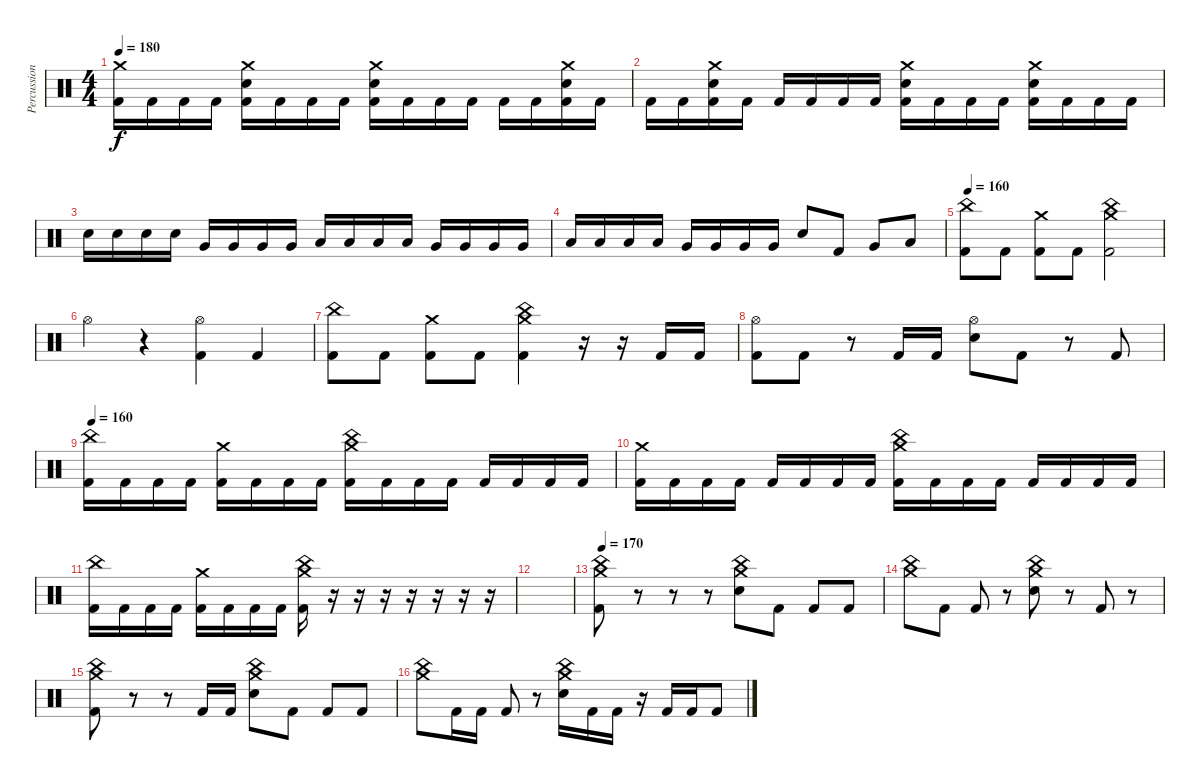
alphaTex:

\track ("Percussions" "Percussion") {instrument percussion}
\staff {score}
\articulation defaults
\ts (4 4)
\tempo 180
\clef neutral
\ks c
("Crash medium (hit)" "Kick (hit) 2").16{dy f} "Kick (hit) 2".16 "Kick (hit) 2".16 "Kick (hit) 2".16 ("Crash medium (hit)" "Electric Snare (hit)" "Kick (hit) 2").16 "Kick (hit) 2".16 "Kick (hit) 2".16 "Kick (hit) 2".16 ("Crash medium (hit)" "Electric Snare (hit)" "Kick (hit) 2").16 "Kick (hit) 2".16 "Kick (hit) 2".16 "Kick (hit) 2".16 "Kick (hit) 2".16 "Kick (hit) 2".16 ("Crash medium (hit)" "Electric Snare (hit)" "Kick (hit) 2").16 "Kick (hit) 2".16 |
"Kick (hit) 2".16 "Kick (hit) 2".16 ("Crash medium (hit)" "Electric Snare (hit)" "Kick (hit) 2").16 "Kick (hit) 2".16 "Kick (hit) 2".16 "Kick (hit) 2".16 "Kick (hit) 2".16 "Kick (hit) 2".16 ("Crash medium (hit)" "Electric Snare (hit)" "Kick (hit) 2").16 "Kick (hit) 2".16 "Kick (hit) 2".16 "Kick (hit) 2".16 ("Crash medium (hit)" "Electric Snare (hit)" "Kick (hit) 2").16 "Kick (hit) 2".16 "Kick (hit) 2".16 "Kick (hit) 2".16 |
"Electric Snare (hit)".16 "Electric Snare (hit)".16 "Electric Snare (hit)".16 "Electric Snare (hit)".16 "Very Low Tom (hit)".16 "Very Low Tom (hit)".16 "Very Low Tom (hit)".16 "Very Low Tom (hit)".16 "Low Floor Tom (hit)".16 "Low Floor Tom (hit)".16 "Low Floor Tom (hit)".16 "Low Floor Tom (hit)".16 "Very Low Tom (hit)".16 "Very Low Tom (hit)".16 "Very Low Tom (hit)".16 "Very Low Tom (hit)".16 |
"Low Tom (hit)".16 "Low Tom (hit)".16 "Low Tom (hit)".16 "Low Tom (hit)".16 "Very Low Tom (hit)".16 "Very Low Tom (hit)".16 "Very Low Tom (hit)".16 "Very Low Tom (hit)".16 "Electric Snare (hit)".8 "Kick (hit) 2".8 "Very Low Tom (hit)".8 "Low Floor Tom (hit)".8 |
\tempo 160
("China (hit)" "Kick (hit) 2").8 "Kick (hit) 2".8 ("Crash medium (hit)" "Kick (hit) 2").8 "Kick (hit) 2".8 ("China (hit)" "Crash medium (hit)" "Kick (hit) 2").2 |
"Hi-Hat (open)".4 r.4 ("Hi-Hat (open)" "Kick (hit) 2").4 "Kick (hit) 2".4 |
("China (hit)" "Kick (hit) 2").8 "Kick (hit) 2".8 ("Crash medium (hit)" "Kick (hit) 2").8 "Kick (hit) 2".8 ("China (hit)" "Crash medium (hit)" "Kick (hit) 2").4 r.16 r.16 "Kick (hit) 2".16 "Kick (hit) 2".16 |
("Hi-Hat (open)" "Kick (hit) 2").8 "Kick (hit) 2".8 r.8 "Kick (hit) 2".16 "Kick (hit) 2".16 ("Hi-Hat (open)" "Electric Snare (hit)").8 "Kick (hit) 2".8 r.8 "Kick (hit) 2".8 |
\tempo 160
("China (hit)" "Kick (hit) 2").16 "Kick (hit) 2".16 "Kick (hit) 2".16 "Kick (hit) 2".16 ("Crash medium (hit)" "Kick (hit) 2").16 "Kick (hit) 2".16 "Kick (hit) 2".16 "Kick (hit) 2".16 ("China (hit)" "Crash medium (hit)" "Kick (hit) 2").16 "Kick (hit) 2".16 "Kick (hit) 2".16 "Kick (hit) 2".16 "Kick (hit) 2".16 "Kick (hit) 2".16 "Kick (hit) 2".16 "Kick (hit) 2".16 |
("Crash medium (hit)" "Kick (hit) 2").16 "Kick (hit) 2".16 "Kick (hit) 2".16 "Kick (hit) 2".16 "Kick (hit) 2".16 "Kick (hit) 2".16 "Kick (hit) 2".16 "Kick (hit) 2".16 ("Crash medium (hit)" "China (hit)" "Kick (hit) 2").16 "Kick (hit) 2".16 "Kick (hit) 2".16 "Kick (hit) 2".16 "Kick (hit) 2".16 "Kick (hit) 2".16 "Kick (hit) 2".16 "Kick (hit) 2".16 |
("China (hit)" "Kick (hit) 2").16 "Kick (hit) 2".16 "Kick (hit) 2".16 "Kick (hit) 2".16 ("Crash medium (hit)" "Kick (hit) 2").16 "Kick (hit) 2".16 "Kick (hit) 2".16 "Kick (hit) 2".16 ("China (hit)" "Crash medium (hit)" "Kick (hit) 2").16 r.16 r.16 r.16 r.16 r.16 r.16 r.16 |
|
\tempo 170
("China (hit)" "Crash medium (hit)" "Kick (hit) 2").8 r.8 r.8 r.8 ("China (hit)" "Crash medium (hit)" "Electric Snare (hit)").8 "Kick (hit) 2".8 "Kick (hit) 2".8 "Kick (hit) 2".8 |
("China (hit)" "Crash medium (hit)").8 "Kick (hit) 2".8 "Kick (hit) 2".8 r.8 ("Crash medium (hit)" "China (hit)" "Electric Snare (hit)").8 r.8 "Kick (hit) 2".8 r.8 |
("China (hit)" "Crash medium (hit)" "Kick (hit) 2").8 r.8 r.8 "Kick (hit) 2".16 "Kick (hit) 2".16 ("China (hit)" "Crash medium (hit)" "Electric Snare (hit)").8 "Kick (hit) 2".8 "Kick (hit) 2".8 "Kick (hit) 2".8 |
("China (hit)" "Crash medium (hit)").8 "Kick (hit) 2".16 "Kick (hit) 2".16 "Kick (hit) 2".8 r.8 ("Crash medium (hit)" "China (hit)" "Electric Snare (hit)").16 "Kick (hit) 2".16 "Kick (hit) 2".16 r.16 "Kick (hit) 2".16 "Kick (hit) 2".16 "Kick (hit) 2".8
